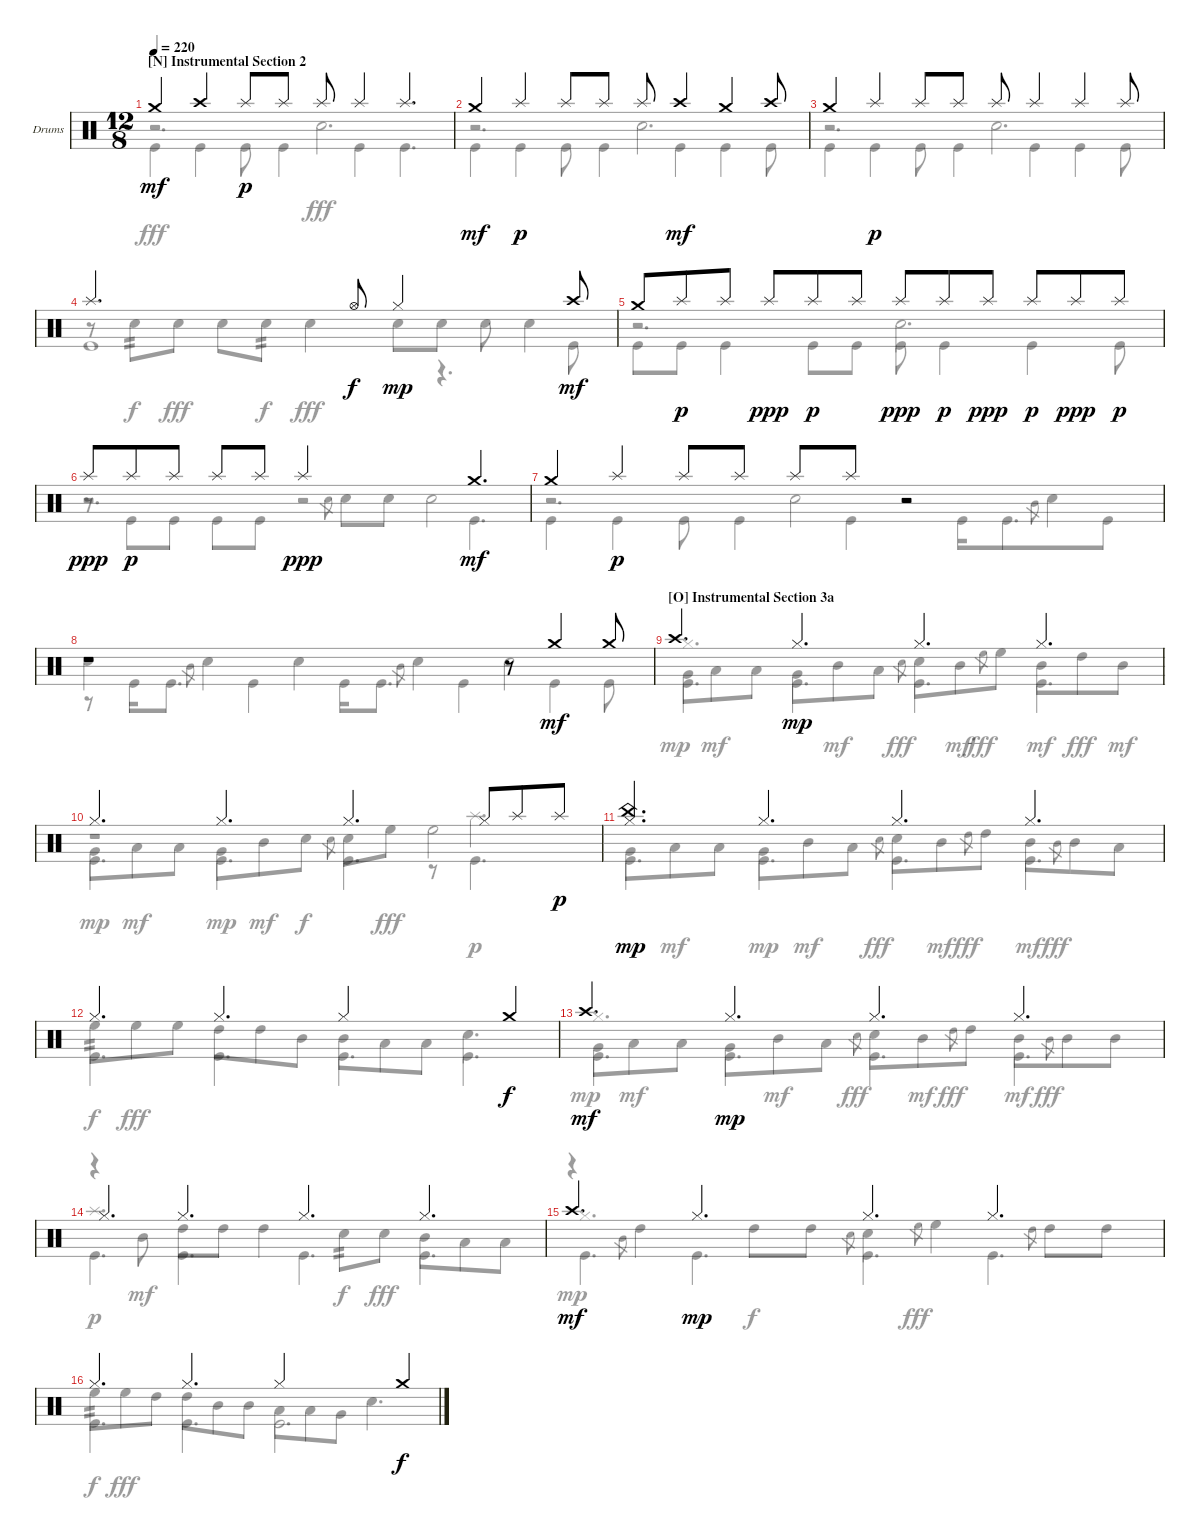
\defaultSystemsLayout 4
\bracketExtendMode groupsimilarinstruments
\firstSystemTrackNameOrientation horizontal
\otherSystemsTrackNameOrientation horizontal
\track ("Drumkit" "Drums") {instrument percussion}
\staff {score}
\articulation defaults
\voice
\ts (12 8)
\section ("N" "Instrumental Section 2")
\tempo 220
\clef neutral
\ks c "Crash medium (hit)".4{dy mf} "Crash high (hit)".4 "Splash (hit)".8{dy p} "Splash (hit)".8 "Splash (hit)".8 "Splash (hit)".4 "Splash (hit)".4{d}
|
"Crash medium (hit)".4{dy mf} "Splash (hit)".4{dy p} "Splash (hit)".8 "Splash (hit)".8 "Splash (hit)".8 "Crash high (hit)".4{dy mf} "Crash medium (hit)".4 "Crash high (hit)".8 |
"Crash medium (hit)".4 "Splash (hit)".4{dy p} "Splash (hit)".8 "Splash (hit)".8 "Splash (hit)".8 "Splash (hit)".4 "Splash (hit)".4 "Splash (hit)".8 |
"Splash (hit)".2{d} "Hi-Hat (open)".8{dy f} "Hi-Hat (closed)".2{dy mp} "Crash high (hit)".8{dy mf} |
"Crash medium (hit)".8 "Splash (hit)".8{dy p} "Splash (hit)".8 "Splash (hit)".8{dy ppp} "Splash (hit)".8{dy p} "Splash (hit)".8 "Splash (hit)".8{dy ppp} "Splash (hit)".8{dy p} "Splash (hit)".8{dy ppp} "Splash (hit)".8{dy p} "Splash (hit)".8{dy ppp} "Splash (hit)".8{dy p} |
"Splash (hit)".8{dy ppp} "Splash (hit)".8{dy p} "Splash (hit)".8 "Splash (hit)".8 "Splash (hit)".8 "Splash (hit)".2{dy ppp} "Crash medium (hit)".4{d dy mf} |
"Crash medium (hit)".4 "Splash (hit)".4{dy p} "Splash (hit)".8 "Splash (hit)".8 "Splash (hit)".8 "Splash (hit)".8 r.2 |
r.1 r.8 "Crash medium (hit)".4{dy mf} "Crash medium (hit)".8 |
\section ("O" "Instrumental Section 3a")
"Crash high (hit)".4{d} "Hi-Hat (closed)".4{d dy mp} "Hi-Hat (closed)".4{d} "Hi-Hat (closed)".4{d} |
"Hi-Hat (closed)".4{d} "Hi-Hat (closed)".4{d} "Hi-Hat (closed)".4{d} "Hi-Hat (closed)".8 "Splash (hit)".8 "Splash (hit)".8{dy p} |
("China (hit)" "Hi-Hat (closed)").4{d dy mp} "Hi-Hat (closed)".4{d} "Hi-Hat (closed)".4{d} "Hi-Hat (closed)".4{d} |
"Hi-Hat (closed)".4{d} "Hi-Hat (closed)".4{d} "Hi-Hat (closed)".2 "Crash medium (hit)".4{dy f} |
"Crash high (hit)".4{d dy mf} "Hi-Hat (closed)".4{d dy mp} "Hi-Hat (closed)".4{d} "Hi-Hat (closed)".4{d} |
"Hi-Hat (closed)".4{d} "Hi-Hat (closed)".4{d} "Hi-Hat (closed)".4{d} "Hi-Hat (closed)".4{d} |
"Crash high (hit)".4{d dy mf} "Hi-Hat (closed)".4{d dy mp} "Hi-Hat (closed)".4{d} "Hi-Hat (closed)".4{d} |
"Hi-Hat (closed)".4{d} "Hi-Hat (closed)".4{d} "Hi-Hat (closed)".2 "Crash medium (hit)".4{dy f}
\voice
\clef neutral
\ottava regular
\simile none
\ks c
r.2{d dy fff} "Snare (hit) 2".2{d} |
r.2{d} "Snare (hit) 2".2{d} |
r.2{d} "Snare (hit) 2".2{d} |
r.8 "Snare (hit) 2".8{tp 2 dy f} "Snare (hit) 2".8{dy fff} "Snare (hit) 2".8 "Snare (hit) 2".8{tp 2 dy f} "Snare (hit) 2".4{dy fff} "Snare (hit) 2".8 "Snare (hit) 2".8 "Snare (hit) 2".8 "Snare (hit) 2".4 |
r.2{d} "Snare (hit) 2".2{d} |
r.2{d} "Snare (hit) 2".8{gr} "Snare (hit) 2".8 "Snare (hit) 2".8 "Snare (hit) 2".2 |
r.2{d} "Snare (hit) 2".2 "Mid Tom (hit)".8{gr} "Snare (hit) 2".4 |
"Snare (hit) 2".4 "Mid Tom (hit)".8{gr} "Snare (hit) 2".4 "Snare (hit) 2".4 "Mid Tom (hit)".8{gr} "Snare (hit) 2".4 "Snare (hit) 2".2 |
"Very Low Tom (hit)".8{dy mp} "Low Tom (hit)".8{dy mf} "Low Tom (hit)".8 "Very Low Tom (hit)".8{dy mp} "Mid Tom (hit)".8{dy mf} "Low Tom (hit)".8 "Snare (hit) 2".8{gr dy fff} "Snare (hit) 2".8 "Mid Tom (hit)".8{dy mf} "High Floor Tom (hit)".8{gr dy fff} "High Floor Tom (hit)".8 "Mid Tom (hit)".8{dy mf} "High Tom (hit)".8{dy fff} "Mid Tom (hit)".8{dy mf} |
"Very Low Tom (hit)".8{dy mp} "Low Tom (hit)".8{dy mf} "Low Tom (hit)".8 "Very Low Tom (hit)".8{dy mp} "Mid Tom (hit)".8{dy mf} "Snare (hit) 2".8{dy f} "Snare (hit) 2".8{gr} "Snare (hit) 2".8 "High Floor Tom (hit)".8{dy fff} "High Floor Tom (hit)".2 |
"Very Low Tom (hit)".8{dy mp} "Low Tom (hit)".8{dy mf} "Low Tom (hit)".8 "Very Low Tom (hit)".8{dy mp} "Mid Tom (hit)".8{dy mf} "Low Tom (hit)".8 "Snare (hit) 2".8{gr dy fff} "Snare (hit) 2".8 "Mid Tom (hit)".8{dy mf} "High Tom (hit)".8{gr dy fff} "High Tom (hit)".8 "Mid Tom (hit)".8{dy mf} "Mid Tom (hit)".8{gr dy fff} "Mid Tom (hit)".8 "Low Tom (hit)".8 |
"High Floor Tom (hit)".8{tp 2 dy f} "High Floor Tom (hit)".8{dy fff} "High Floor Tom (hit)".8 "High Tom (hit)".8 "High Tom (hit)".8 "Mid Tom (hit)".8 "Mid Tom (hit)".8 "Low Tom (hit)".8 "Low Tom (hit)".8 "Snare (hit) 2".4{d} |
"Very Low Tom (hit)".8{dy mp} "Low Tom (hit)".8{dy mf} "Low Tom (hit)".8 "Very Low Tom (hit)".8{dy mp} "Mid Tom (hit)".8{dy mf} "Low Tom (hit)".8 "Snare (hit) 2".8{gr dy fff} "Snare (hit) 2".8 "Mid Tom (hit)".8{dy mf} "High Tom (hit)".8{gr dy fff} "High Tom (hit)".8 "Mid Tom (hit)".8{dy mf} "Mid Tom (hit)".8{gr dy fff} "Mid Tom (hit)".8 "Mid Tom (hit)".8 |
r.4 "Mid Tom (hit)".8{dy mf} "High Tom (hit)".8 "High Tom (hit)".8 "High Tom (hit)".4 "Snare (hit) 2".8{tp 2 dy f} "Snare (hit) 2".8{dy fff} "Mid Tom (hit)".8 "Low Tom (hit)".8 "Low Tom (hit)".8 |
r.4 "Mid Tom (hit)".8{gr} "High Tom (hit)".4 "High Tom (hit)".8{dy f} "High Tom (hit)".8 "Snare (hit) 2".8{gr} "Snare (hit) 2".4 "High Floor Tom (hit)".8{gr dy fff} "High Floor Tom (hit)".4 "High Tom (hit)".8{gr} "High Tom (hit)".8 "High Tom (hit)".8 |
"High Floor Tom (hit)".8{tp 2 dy f} "High Floor Tom (hit)".8{dy fff} "High Tom (hit)".8 "High Tom (hit)".8 "Mid Tom (hit)".8 "Mid Tom (hit)".8 "Low Tom (hit)".8 "Low Tom (hit)".8 "Very Low Tom (hit)".8 "Snare (hit) 2".4{d}
\voice
\clef neutral
\ottava regular
\simile none
\ks c "Kick (hit)".4{dy fff} "Kick (hit)".4 "Kick (hit)".8 "Kick (hit)".4 "Kick (hit)".4 "Kick (hit)".4{d}
|
"Kick (hit)".4 "Kick (hit)".4 "Kick (hit)".8 "Kick (hit)".4 "Kick (hit)".4 "Kick (hit)".4 "Kick (hit)".8 |
"Kick (hit)".4 "Kick (hit)".4 "Kick (hit)".8 "Kick (hit)".4 "Kick (hit)".4 "Kick (hit)".4 "Kick (hit)".8 |
"Kick (hit)".1 r.4{d} "Kick (hit)".8 |
"Kick (hit)".8 "Kick (hit)".8 "Kick (hit)".4 "Kick (hit)".8 "Kick (hit)".8 "Kick (hit)".8 "Kick (hit)".4 "Kick (hit)".4 "Kick (hit)".8 |
r.8 "Kick (hit)".8 "Kick (hit)".8 "Kick (hit)".8 "Kick (hit)".8 r.2 "Kick (hit)".4{d} |
"Kick (hit)".4 "Kick (hit)".4 "Kick (hit)".8 "Kick (hit)".4 "Kick (hit)".4 "Kick (hit)".16 "Kick (hit)".8{d} "Kick (hit)".8 |
r.8 "Kick (hit)".16 "Kick (hit)".8{d} "Kick (hit)".4 "Kick (hit)".16 "Kick (hit)".8{d} "Kick (hit)".4 "Kick (hit)".4 "Kick (hit)".8 |
"Kick (hit)".4{d} "Kick (hit)".4{d} "Kick (hit)".4{d} "Kick (hit)".4{d} |
"Kick (hit)".4{d} "Kick (hit)".4{d} "Kick (hit)".4{d} "Kick (hit)".4{d} |
"Kick (hit)".4{d} "Kick (hit)".4{d} "Kick (hit)".4{d} "Kick (hit)".4{d} |
"Kick (hit)".4{d} "Kick (hit)".4{d} "Kick (hit)".4{d} "Kick (hit)".4{d} |
"Kick (hit)".4{d} "Kick (hit)".4{d} "Kick (hit)".4{d} "Kick (hit)".4{d} |
"Kick (hit)".4{d} "Kick (hit)".4{d} "Kick (hit)".4{d} "Kick (hit)".4{d} |
"Kick (hit)".4{d} "Kick (hit)".4{d} "Kick (hit)".4{d} "Kick (hit)".4{d} |
"Kick (hit)".4{d} "Kick (hit)".4{d} "Kick (hit)".2{d}
\voice
\clef neutral
\ottava regular
\simile none
\ks c
|
|
|
|
|
|
|
|
"Hi-Hat (closed)".1{d dy mp} |
r.1 r.8 "Splash (hit)".4{d dy p} |
|
|
"Hi-Hat (closed)".1{d dy mp} |
"Splash (hit)".1{d dy p} |
"Hi-Hat (closed)".1{d dy mp} |
